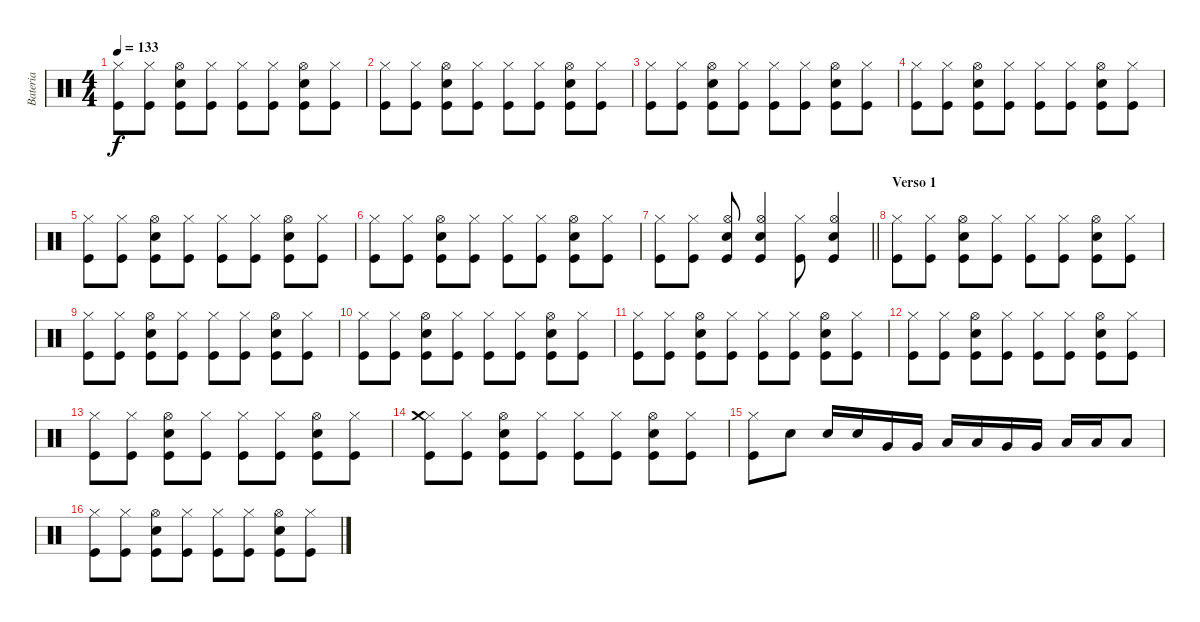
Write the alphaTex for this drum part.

\track ("Bateria" "Bateria") {instrument percussion}
\staff
\articulation defaults
\ts (4 4)
\tempo 133
\clef neutral
\ks c
("Hi-Hat (closed)" "Kick (hit)").8{dy f} ("Hi-Hat (closed)" "Kick (hit)").8 ("Hi-Hat (open)" "Kick (hit)" "Snare (hit) 2").8 ("Hi-Hat (closed)" "Kick (hit)").8 ("Hi-Hat (closed)" "Kick (hit)").8 ("Hi-Hat (closed)" "Kick (hit)").8 ("Hi-Hat (open)" "Kick (hit)" "Snare (hit) 2").8 ("Hi-Hat (closed)" "Kick (hit)").8 |
("Hi-Hat (closed)" "Kick (hit)").8 ("Hi-Hat (closed)" "Kick (hit)").8 ("Hi-Hat (open)" "Kick (hit)" "Snare (hit) 2").8 ("Hi-Hat (closed)" "Kick (hit)").8 ("Hi-Hat (closed)" "Kick (hit)").8 ("Hi-Hat (closed)" "Kick (hit)").8 ("Hi-Hat (open)" "Kick (hit)" "Snare (hit) 2").8 ("Hi-Hat (closed)" "Kick (hit)").8 |
("Hi-Hat (closed)" "Kick (hit)").8 ("Hi-Hat (closed)" "Kick (hit)").8 ("Hi-Hat (open)" "Kick (hit)" "Snare (hit) 2").8 ("Hi-Hat (closed)" "Kick (hit)").8 ("Hi-Hat (closed)" "Kick (hit)").8 ("Hi-Hat (closed)" "Kick (hit)").8 ("Hi-Hat (open)" "Kick (hit)" "Snare (hit) 2").8 ("Hi-Hat (closed)" "Kick (hit)").8 |
("Hi-Hat (closed)" "Kick (hit)").8 ("Hi-Hat (closed)" "Kick (hit)").8 ("Hi-Hat (open)" "Kick (hit)" "Snare (hit) 2").8 ("Hi-Hat (closed)" "Kick (hit)").8 ("Hi-Hat (closed)" "Kick (hit)").8 ("Hi-Hat (closed)" "Kick (hit)").8 ("Hi-Hat (open)" "Kick (hit)" "Snare (hit) 2").8 ("Hi-Hat (closed)" "Kick (hit)").8 |
("Hi-Hat (closed)" "Kick (hit)").8 ("Hi-Hat (closed)" "Kick (hit)").8 ("Hi-Hat (open)" "Kick (hit)" "Snare (hit) 2").8 ("Hi-Hat (closed)" "Kick (hit)").8 ("Hi-Hat (closed)" "Kick (hit)").8 ("Hi-Hat (closed)" "Kick (hit)").8 ("Hi-Hat (open)" "Kick (hit)" "Snare (hit) 2").8 ("Hi-Hat (closed)" "Kick (hit)").8 |
("Hi-Hat (closed)" "Kick (hit)").8 ("Hi-Hat (closed)" "Kick (hit)").8 ("Hi-Hat (open)" "Kick (hit)" "Snare (hit) 2").8 ("Hi-Hat (closed)" "Kick (hit)").8 ("Hi-Hat (closed)" "Kick (hit)").8 ("Hi-Hat (closed)" "Kick (hit)").8 ("Hi-Hat (open)" "Kick (hit)" "Snare (hit) 2").8 ("Hi-Hat (closed)" "Kick (hit)").8 |
\barLineRight lightlight
("Hi-Hat (closed)" "Kick (hit)").8 ("Hi-Hat (closed)" "Kick (hit)").8 ("Hi-Hat (open)" "Kick (hit)" "Snare (hit) 2").8 ("Hi-Hat (open)" "Kick (hit)" "Snare (hit) 2").4 ("Hi-Hat (closed)" "Kick (hit)").8 ("Hi-Hat (open)" "Kick (hit)" "Snare (hit) 2").4 |
\section ("" "Verso 1")
("Hi-Hat (closed)" "Kick (hit)").8 ("Hi-Hat (closed)" "Kick (hit)").8 ("Hi-Hat (open)" "Kick (hit)" "Snare (hit) 2").8 ("Hi-Hat (closed)" "Kick (hit)").8 ("Hi-Hat (closed)" "Kick (hit)").8 ("Hi-Hat (closed)" "Kick (hit)").8 ("Hi-Hat (open)" "Kick (hit)" "Snare (hit) 2").8 ("Hi-Hat (closed)" "Kick (hit)").8 |
("Hi-Hat (closed)" "Kick (hit)").8 ("Hi-Hat (closed)" "Kick (hit)").8 ("Hi-Hat (open)" "Kick (hit)" "Snare (hit) 2").8 ("Hi-Hat (closed)" "Kick (hit)").8 ("Hi-Hat (closed)" "Kick (hit)").8 ("Hi-Hat (closed)" "Kick (hit)").8 ("Hi-Hat (open)" "Kick (hit)" "Snare (hit) 2").8 ("Hi-Hat (closed)" "Kick (hit)").8 |
("Hi-Hat (closed)" "Kick (hit)").8 ("Hi-Hat (closed)" "Kick (hit)").8 ("Hi-Hat (open)" "Kick (hit)" "Snare (hit) 2").8 ("Hi-Hat (closed)" "Kick (hit)").8 ("Hi-Hat (closed)" "Kick (hit)").8 ("Hi-Hat (closed)" "Kick (hit)").8 ("Hi-Hat (open)" "Kick (hit)" "Snare (hit) 2").8 ("Hi-Hat (closed)" "Kick (hit)").8 |
("Hi-Hat (closed)" "Kick (hit)").8 ("Hi-Hat (closed)" "Kick (hit)").8 ("Hi-Hat (open)" "Kick (hit)" "Snare (hit) 2").8 ("Hi-Hat (closed)" "Kick (hit)").8 ("Hi-Hat (closed)" "Kick (hit)").8 ("Hi-Hat (closed)" "Kick (hit)").8 ("Hi-Hat (open)" "Kick (hit)" "Snare (hit) 2").8 ("Hi-Hat (closed)" "Kick (hit)").8 |
("Hi-Hat (closed)" "Kick (hit)").8 ("Hi-Hat (closed)" "Kick (hit)").8 ("Hi-Hat (open)" "Kick (hit)" "Snare (hit) 2").8 ("Hi-Hat (closed)" "Kick (hit)").8 ("Hi-Hat (closed)" "Kick (hit)").8 ("Hi-Hat (closed)" "Kick (hit)").8 ("Hi-Hat (open)" "Kick (hit)" "Snare (hit) 2").8 ("Hi-Hat (closed)" "Kick (hit)").8 |
("Hi-Hat (closed)" "Kick (hit)").8 ("Hi-Hat (closed)" "Kick (hit)").8 ("Hi-Hat (open)" "Kick (hit)" "Snare (hit) 2").8 ("Hi-Hat (closed)" "Kick (hit)").8 ("Hi-Hat (closed)" "Kick (hit)").8 ("Hi-Hat (closed)" "Kick (hit)").8 ("Hi-Hat (open)" "Kick (hit)" "Snare (hit) 2").8 ("Hi-Hat (closed)" "Kick (hit)").8 |
("Hi-Hat (closed)" "Kick (hit)" "Crash medium (hit)").8 ("Hi-Hat (closed)" "Kick (hit)").8 ("Hi-Hat (open)" "Kick (hit)" "Snare (hit) 2").8 ("Hi-Hat (closed)" "Kick (hit)").8 ("Hi-Hat (closed)" "Kick (hit)").8 ("Hi-Hat (closed)" "Kick (hit)").8 ("Hi-Hat (open)" "Kick (hit)" "Snare (hit) 2").8 ("Hi-Hat (closed)" "Kick (hit)").8 |
("Hi-Hat (closed)" "Kick (hit)").8 "Snare (hit) 2".8 "Snare (hit) 2".16 "Snare (hit) 2".16 "Very Low Tom (hit)".16 "Very Low Tom (hit)".16 "Low Tom (hit)".16 "Low Tom (hit)".16 "Very Low Tom (hit)".16 "Very Low Tom (hit)".16 "Low Floor Tom (hit)".16 "Low Floor Tom (hit)".16 "Low Floor Tom (hit)".8 |
("Hi-Hat (closed)" "Kick (hit)").8 ("Hi-Hat (closed)" "Kick (hit)").8 ("Hi-Hat (open)" "Kick (hit)" "Snare (hit) 2").8 ("Hi-Hat (closed)" "Kick (hit)").8 ("Hi-Hat (closed)" "Kick (hit)").8 ("Hi-Hat (closed)" "Kick (hit)").8 ("Hi-Hat (open)" "Kick (hit)" "Snare (hit) 2").8 ("Hi-Hat (closed)" "Kick (hit)").8
